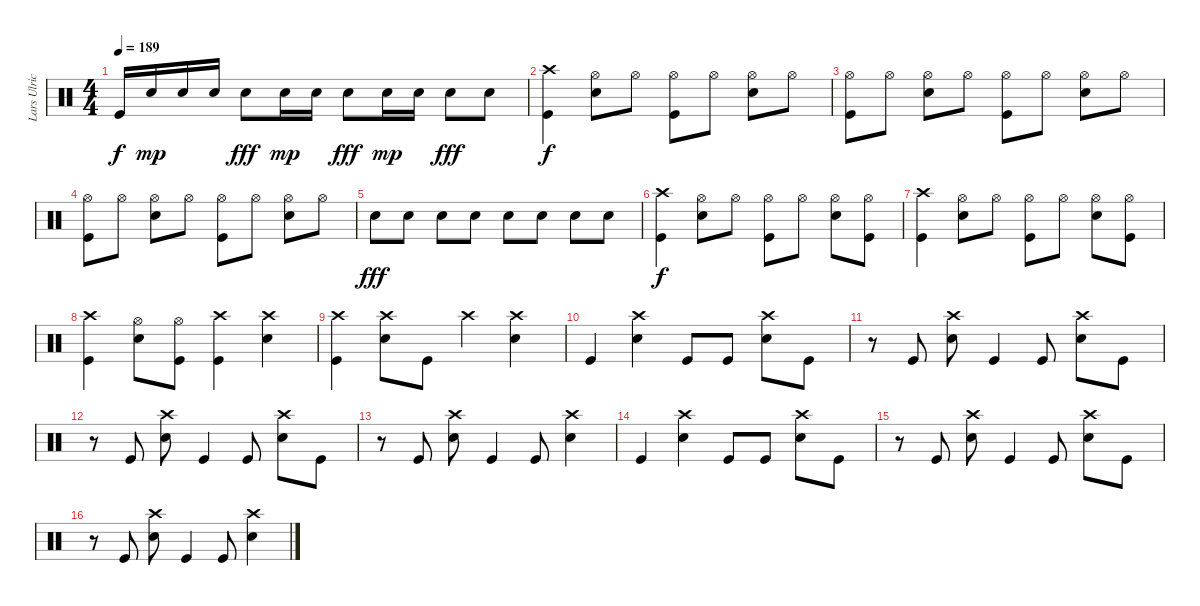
\track ("Lars Ulrich" "Lars Ulric") {instrument percussion}
\staff {score}
\articulation defaults
\ts (4 4)
\tempo 189
\clef neutral
\ks c "Kick (hit)".16{dy f} "Electric Snare (hit)".16{dy mp} "Electric Snare (hit)".16 "Electric Snare (hit)".16 "Electric Snare (hit)".8{dy fff} "Electric Snare (hit)".16{dy mp} "Electric Snare (hit)".16 "Electric Snare (hit)".8{dy fff} "Electric Snare (hit)".16{dy mp} "Electric Snare (hit)".16 "Electric Snare (hit)".8{dy fff} "Electric Snare (hit)".8
|
("Crash high (hit)" "Kick (hit)").4{dy f} ("Hi-Hat (open)" "Electric Snare (hit)").8 "Hi-Hat (open)".8 ("Hi-Hat (open)" "Kick (hit)").8 "Hi-Hat (open)".8 ("Hi-Hat (open)" "Electric Snare (hit)").8 "Hi-Hat (open)".8 |
("Hi-Hat (open)" "Kick (hit)").8 "Hi-Hat (open)".8 ("Hi-Hat (open)" "Electric Snare (hit)").8 "Hi-Hat (open)".8 ("Hi-Hat (open)" "Kick (hit)").8 "Hi-Hat (open)".8 ("Hi-Hat (open)" "Electric Snare (hit)").8 "Hi-Hat (open)".8 |
("Hi-Hat (open)" "Kick (hit)").8 "Hi-Hat (open)".8 ("Hi-Hat (open)" "Electric Snare (hit)").8 "Hi-Hat (open)".8 ("Hi-Hat (open)" "Kick (hit)").8 "Hi-Hat (open)".8 ("Hi-Hat (open)" "Electric Snare (hit)").8 "Hi-Hat (open)".8 |
"Electric Snare (hit)".8{dy fff} "Electric Snare (hit)".8 "Electric Snare (hit)".8 "Electric Snare (hit)".8 "Electric Snare (hit)".8 "Electric Snare (hit)".8 "Electric Snare (hit)".8 "Electric Snare (hit)".8 |
("Crash high (hit)" "Kick (hit)").4{dy f} ("Hi-Hat (open)" "Electric Snare (hit)").8 "Hi-Hat (open)".8 ("Hi-Hat (open)" "Kick (hit)").8 "Hi-Hat (open)".8 ("Hi-Hat (open)" "Electric Snare (hit)").8 ("Hi-Hat (open)" "Kick (hit)").8 |
("Crash high (hit)" "Kick (hit)").4 ("Hi-Hat (open)" "Electric Snare (hit)").8 "Hi-Hat (open)".8 ("Hi-Hat (open)" "Kick (hit)").8 "Hi-Hat (open)".8 ("Hi-Hat (open)" "Electric Snare (hit)").8 ("Hi-Hat (open)" "Kick (hit)").8 |
("Crash high (hit)" "Kick (hit)").4 ("Hi-Hat (open)" "Electric Snare (hit)").8 ("Hi-Hat (open)" "Kick (hit)").8 ("Crash high (hit)" "Kick (hit)").4 ("Crash high (hit)" "Electric Snare (hit)").4 |
("Crash high (hit)" "Kick (hit)").4 ("Crash high (hit)" "Electric Snare (hit)").8 "Kick (hit)".8 "Crash high (hit)".4 ("Crash high (hit)" "Electric Snare (hit)").4 |
"Kick (hit)".4 ("Crash high (hit)" "Electric Snare (hit)").4 "Kick (hit)".8 "Kick (hit)".8 ("Crash high (hit)" "Electric Snare (hit)").8 "Kick (hit)".8 |
r.8 "Kick (hit)".8 ("Crash high (hit)" "Electric Snare (hit)").8 "Kick (hit)".4 "Kick (hit)".8 ("Crash high (hit)" "Electric Snare (hit)").8 "Kick (hit)".8 |
r.8 "Kick (hit)".8 ("Crash high (hit)" "Electric Snare (hit)").8 "Kick (hit)".4 "Kick (hit)".8 ("Crash high (hit)" "Electric Snare (hit)").8 "Kick (hit)".8 |
r.8 "Kick (hit)".8 ("Crash high (hit)" "Electric Snare (hit)").8 "Kick (hit)".4 "Kick (hit)".8 ("Crash high (hit)" "Electric Snare (hit)").4 |
"Kick (hit)".4 ("Crash high (hit)" "Electric Snare (hit)").4 "Kick (hit)".8 "Kick (hit)".8 ("Crash high (hit)" "Electric Snare (hit)").8 "Kick (hit)".8 |
r.8 "Kick (hit)".8 ("Crash high (hit)" "Electric Snare (hit)").8 "Kick (hit)".4 "Kick (hit)".8 ("Crash high (hit)" "Electric Snare (hit)").8 "Kick (hit)".8 |
r.8 "Kick (hit)".8 ("Crash high (hit)" "Electric Snare (hit)").8 "Kick (hit)".4 "Kick (hit)".8 ("Crash high (hit)" "Electric Snare (hit)").4
